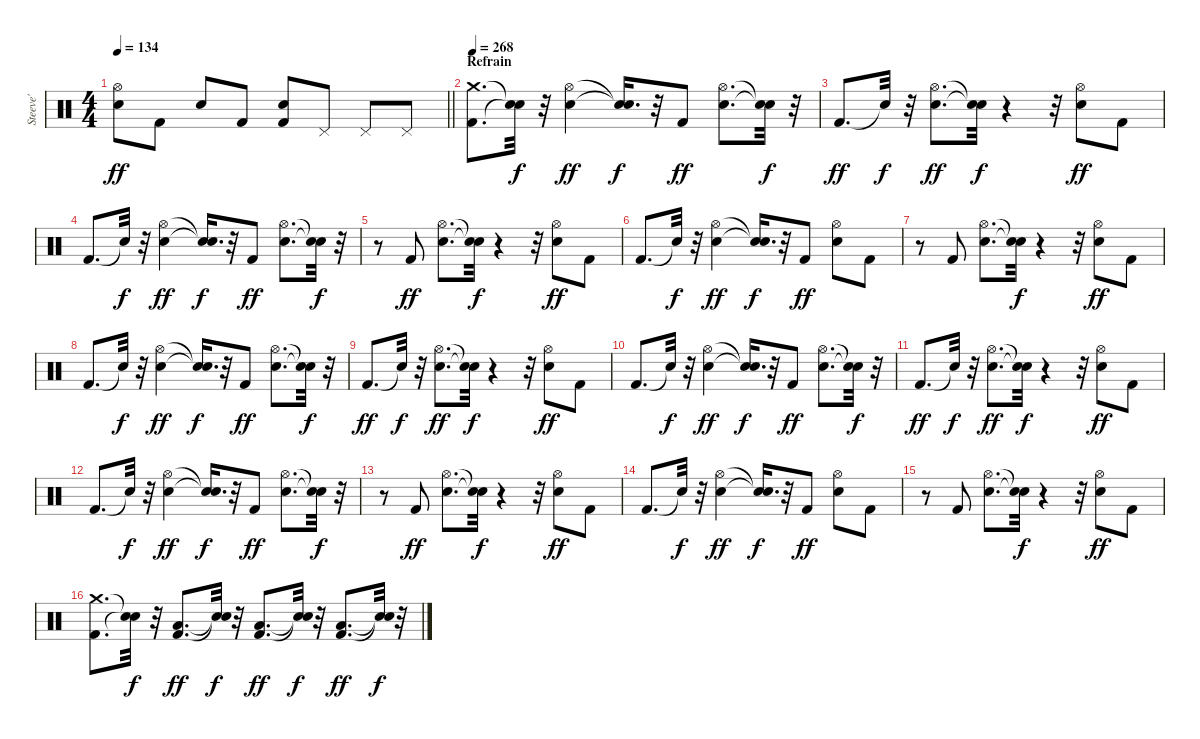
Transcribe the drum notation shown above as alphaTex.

\track ("Steeve'" "Steeve'") {instrument percussion}
\staff {score}
\articulation defaults
\ts (4 4)
\tempo 134
\clef neutral
\barLineRight lightlight
\ks c
("Electric Snare (hit)" "Hi-Hat (open)").8{dy ff} "Kick (hit) 2".8 "Electric Snare (hit)".8 "Kick (hit) 2".8 ("Kick (hit) 2" "Electric Snare (hit)").8 "Pedal Hi-Hat (hit)".8 "Pedal Hi-Hat (hit)".8 "Pedal Hi-Hat (hit)".8 |
\section ("" "Refrain")
\tempo 268
("Kick (hit) 2" "Crash medium (hit)").8{d} ("Snare (hit)"{t} "Snare (hit)"{t}).32{dy f} r.32 ("Electric Snare (hit)" "Hi-Hat (open)").4{dy ff} ("Snare (hit)"{t} "Snare (hit)"{t}).16{d dy f} r.32 "Kick (hit) 2".8{dy ff} ("Electric Snare (hit)" "Hi-Hat (open)").8{d} ("Snare (hit)"{t} "Snare (hit)"{t}).32{dy f} r.32 |
"Kick (hit) 2".8{d dy ff} "Snare (hit)"{t}.32{dy f} r.32 ("Electric Snare (hit)" "Hi-Hat (open)").8{d dy ff} ("Snare (hit)"{t} "Snare (hit)"{t}).32{dy f} r.4 r.32 ("Electric Snare (hit)" "Hi-Hat (open)").8{dy ff} "Kick (hit) 2".8 |
"Kick (hit) 2".8{d} "Snare (hit)"{t}.32{dy f} r.32 ("Electric Snare (hit)" "Hi-Hat (open)").4{dy ff} ("Snare (hit)"{t} "Snare (hit)"{t}).16{d dy f} r.32 "Kick (hit) 2".8{dy ff} ("Electric Snare (hit)" "Hi-Hat (open)").8{d} ("Snare (hit)"{t} "Snare (hit)"{t}).32{dy f} r.32 |
r.8 "Kick (hit) 2".8{dy ff} ("Electric Snare (hit)" "Hi-Hat (open)").8{d} ("Snare (hit)"{t} "Snare (hit)"{t}).32{dy f} r.4 r.32 ("Electric Snare (hit)" "Hi-Hat (open)").8{dy ff} "Kick (hit) 2".8 |
"Kick (hit) 2".8{d} "Snare (hit)"{t}.32{dy f} r.32 ("Electric Snare (hit)" "Hi-Hat (open)").4{dy ff} ("Snare (hit)"{t} "Snare (hit)"{t}).16{d dy f} r.32 "Kick (hit) 2".8{dy ff} ("Electric Snare (hit)" "Hi-Hat (open)").8 "Kick (hit) 2".8 |
r.8 "Kick (hit) 2".8 ("Electric Snare (hit)" "Hi-Hat (open)").8{d} ("Snare (hit)"{t} "Snare (hit)"{t}).32{dy f} r.4 r.32 ("Electric Snare (hit)" "Hi-Hat (open)").8{dy ff} "Kick (hit) 2".8 |
"Kick (hit) 2".8{d} "Snare (hit)"{t}.32{dy f} r.32 ("Electric Snare (hit)" "Hi-Hat (open)").4{dy ff} ("Snare (hit)"{t} "Snare (hit)"{t}).16{d dy f} r.32 "Kick (hit) 2".8{dy ff} ("Electric Snare (hit)" "Hi-Hat (open)").8{d} ("Snare (hit)"{t} "Snare (hit)"{t}).32{dy f} r.32 |
"Kick (hit) 2".8{d dy ff} "Snare (hit)"{t}.32{dy f} r.32 ("Electric Snare (hit)" "Hi-Hat (open)").8{d dy ff} ("Snare (hit)"{t} "Snare (hit)"{t}).32{dy f} r.4 r.32 ("Electric Snare (hit)" "Hi-Hat (open)").8{dy ff} "Kick (hit) 2".8 |
"Kick (hit) 2".8{d} "Snare (hit)"{t}.32{dy f} r.32 ("Electric Snare (hit)" "Hi-Hat (open)").4{dy ff} ("Snare (hit)"{t} "Snare (hit)"{t}).16{d dy f} r.32 "Kick (hit) 2".8{dy ff} ("Electric Snare (hit)" "Hi-Hat (open)").8{d} ("Snare (hit)"{t} "Snare (hit)"{t}).32{dy f} r.32 |
"Kick (hit) 2".8{d dy ff} "Snare (hit)"{t}.32{dy f} r.32 ("Electric Snare (hit)" "Hi-Hat (open)").8{d dy ff} ("Snare (hit)"{t} "Snare (hit)"{t}).32{dy f} r.4 r.32 ("Electric Snare (hit)" "Hi-Hat (open)").8{dy ff} "Kick (hit) 2".8 |
"Kick (hit) 2".8{d} "Snare (hit)"{t}.32{dy f} r.32 ("Electric Snare (hit)" "Hi-Hat (open)").4{dy ff} ("Snare (hit)"{t} "Snare (hit)"{t}).16{d dy f} r.32 "Kick (hit) 2".8{dy ff} ("Electric Snare (hit)" "Hi-Hat (open)").8{d} ("Snare (hit)"{t} "Snare (hit)"{t}).32{dy f} r.32 |
r.8 "Kick (hit) 2".8{dy ff} ("Electric Snare (hit)" "Hi-Hat (open)").8{d} ("Snare (hit)"{t} "Snare (hit)"{t}).32{dy f} r.4 r.32 ("Electric Snare (hit)" "Hi-Hat (open)").8{dy ff} "Kick (hit) 2".8 |
"Kick (hit) 2".8{d} "Snare (hit)"{t}.32{dy f} r.32 ("Electric Snare (hit)" "Hi-Hat (open)").4{dy ff} ("Snare (hit)"{t} "Snare (hit)"{t}).16{d dy f} r.32 "Kick (hit) 2".8{dy ff} ("Electric Snare (hit)" "Hi-Hat (open)").8 "Kick (hit) 2".8 |
r.8 "Kick (hit) 2".8 ("Electric Snare (hit)" "Hi-Hat (open)").8{d} ("Snare (hit)"{t} "Snare (hit)"{t}).32{dy f} r.4 r.32 ("Electric Snare (hit)" "Hi-Hat (open)").8{dy ff} "Kick (hit) 2".8 |
("Kick (hit) 2" "Crash medium (hit)").8{d} ("Snare (hit)"{t} "Snare (hit)"{t}).32{dy f} r.32 ("Kick (hit) 2" "Low Floor Tom (hit)").8{d dy ff} ("Snare (hit)"{t} "Snare (hit)"{t}).32{dy f} r.32 ("Kick (hit) 2" "Low Floor Tom (hit)").8{d dy ff} ("Snare (hit)"{t} "Snare (hit)"{t}).32{dy f} r.32 ("Kick (hit) 2" "Low Floor Tom (hit)").8{d dy ff} ("Snare (hit)"{t} "Snare (hit)"{t}).32{dy f} r.32
